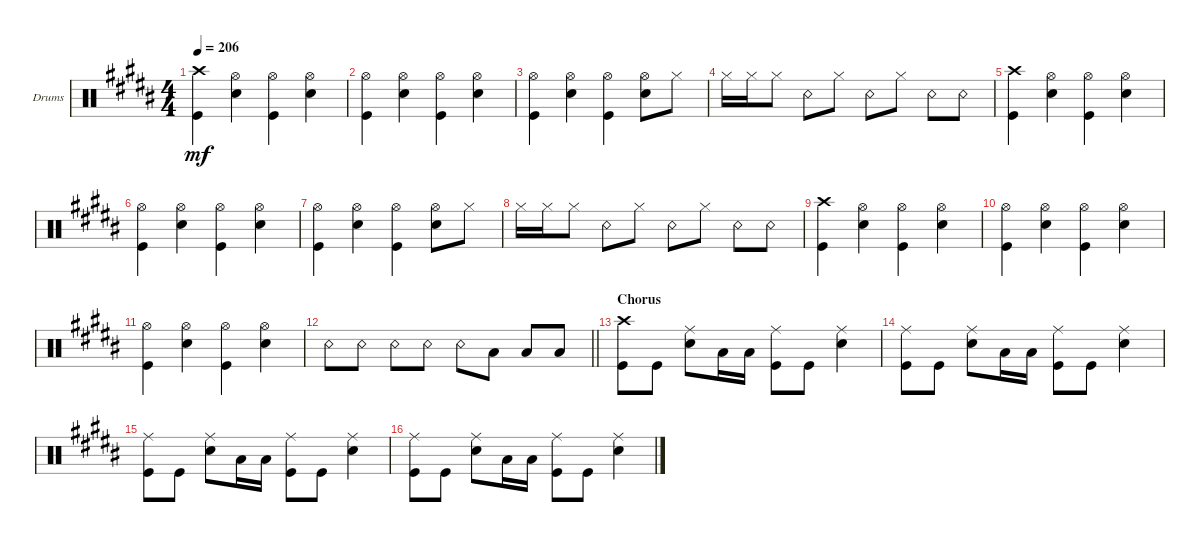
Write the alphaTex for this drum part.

\defaultSystemsLayout 4
\bracketExtendMode groupsimilarinstruments
\firstSystemTrackNameOrientation horizontal
\otherSystemsTrackNameOrientation horizontal
\track ("Drums" "Drums") {instrument percussion}
\staff {score}
\articulation defaults
\ts (4 4)
\tempo 206
\clef neutral
\ks b
("Kick (hit)" "Crash high (hit)").4{dy mf} ("Hi-Hat (open)" "Snare (hit) 2").4 ("Hi-Hat (open)" "Kick (hit)").4 ("Hi-Hat (open)" "Snare (hit) 2").4 |
("Hi-Hat (open)" "Kick (hit)").4 ("Hi-Hat (open)" "Snare (hit) 2").4 ("Hi-Hat (open)" "Kick (hit)").4 ("Hi-Hat (open)" "Snare (hit) 2").4 |
("Hi-Hat (open)" "Kick (hit)").4 ("Hi-Hat (open)" "Snare (hit) 2").4 ("Hi-Hat (open)" "Kick (hit)").4 ("Hi-Hat (open)" "Snare (hit) 2").8 "Hi-Hat (closed)".8 |
"Hi-Hat (closed)".16 "Hi-Hat (closed)".16 "Hi-Hat (closed)".8 "Snare (rim shot)".8 "Hi-Hat (closed)".8 "Snare (rim shot)".8 "Hi-Hat (closed)".8 "Snare (rim shot)".8 "Snare (rim shot)".8 |
("Kick (hit)" "Crash high (hit)").4 ("Hi-Hat (open)" "Snare (hit) 2").4 ("Hi-Hat (open)" "Kick (hit)").4 ("Hi-Hat (open)" "Snare (hit) 2").4 |
("Hi-Hat (open)" "Kick (hit)").4 ("Hi-Hat (open)" "Snare (hit) 2").4 ("Hi-Hat (open)" "Kick (hit)").4 ("Hi-Hat (open)" "Snare (hit) 2").4 |
("Hi-Hat (open)" "Kick (hit)").4 ("Hi-Hat (open)" "Snare (hit) 2").4 ("Hi-Hat (open)" "Kick (hit)").4 ("Hi-Hat (open)" "Snare (hit) 2").8 "Hi-Hat (closed)".8 |
"Hi-Hat (closed)".16 "Hi-Hat (closed)".16 "Hi-Hat (closed)".8 "Snare (rim shot)".8 "Hi-Hat (closed)".8 "Snare (rim shot)".8 "Hi-Hat (closed)".8 "Snare (rim shot)".8 "Snare (rim shot)".8 |
("Kick (hit)" "Crash high (hit)").4 ("Hi-Hat (open)" "Snare (hit) 2").4 ("Hi-Hat (open)" "Kick (hit)").4 ("Hi-Hat (open)" "Snare (hit) 2").4 |
("Hi-Hat (open)" "Kick (hit)").4 ("Hi-Hat (open)" "Snare (hit) 2").4 ("Hi-Hat (open)" "Kick (hit)").4 ("Hi-Hat (open)" "Snare (hit) 2").4 |
("Hi-Hat (open)" "Kick (hit)").4 ("Hi-Hat (open)" "Snare (hit) 2").4 ("Hi-Hat (open)" "Kick (hit)").4 ("Hi-Hat (open)" "Snare (hit) 2").4 |
\barLineRight lightlight "Snare (rim shot)".8 "Snare (rim shot)".8 "Snare (rim shot)".8 "Snare (rim shot)".8 "Snare (rim shot)".8 "Low Tom (hit)".8 "Low Tom (hit)".8 "Low Tom (hit)".8
|
\section ("" "Chorus")
("Kick (hit)" "Crash high (hit)").8 "Kick (hit)".8 ("Snare (hit) 2" "Ride (middle)").8 "Low Tom (hit)".16 "Low Tom (hit)".16 ("Kick (hit)" "Ride (middle)").8 "Kick (hit)".8 ("Snare (hit) 2" "Ride (middle)").4 |
("Kick (hit)" "Ride (middle)").8 "Kick (hit)".8 ("Snare (hit) 2" "Ride (middle)").8 "Low Tom (hit)".16 "Low Tom (hit)".16 ("Kick (hit)" "Ride (middle)").8 "Kick (hit)".8 ("Snare (hit) 2" "Ride (middle)").4 |
("Kick (hit)" "Ride (middle)").8 "Kick (hit)".8 ("Snare (hit) 2" "Ride (middle)").8 "Low Tom (hit)".16 "Low Tom (hit)".16 ("Kick (hit)" "Ride (middle)").8 "Kick (hit)".8 ("Snare (hit) 2" "Ride (middle)").4 |
("Kick (hit)" "Ride (middle)").8 "Kick (hit)".8 ("Snare (hit) 2" "Ride (middle)").8 "Low Tom (hit)".16 "Low Tom (hit)".16 ("Kick (hit)" "Ride (middle)").8 "Kick (hit)".8 ("Snare (hit) 2" "Ride (middle)").4
